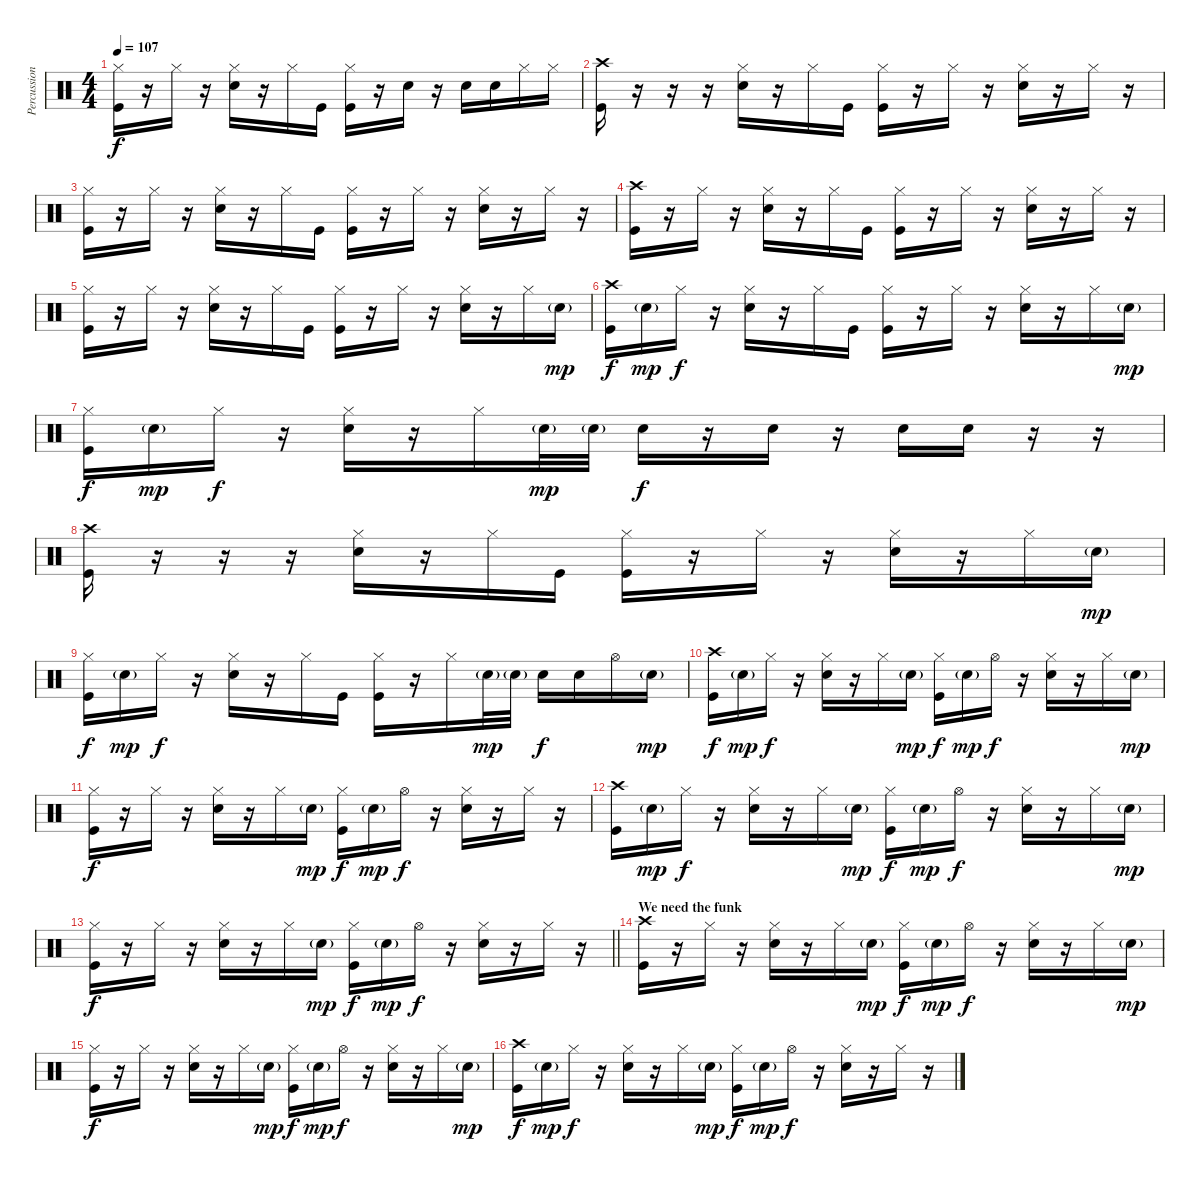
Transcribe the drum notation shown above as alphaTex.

\track ("Percussion" "Percussion") {instrument percussion}
\staff {score}
\articulation defaults
\ts (4 4)
\tempo 107
\clef neutral
\ks c
("Hi-Hat (closed)" "Kick (hit)").16{dy f} r.16 "Hi-Hat (closed)".16 r.16 ("Hi-Hat (closed)" "Snare (hit) 2").16 r.16 "Hi-Hat (closed)".16 "Kick (hit)".16 ("Hi-Hat (closed)" "Kick (hit)").16 r.16 "Snare (hit) 2".16 r.16 "Snare (hit) 2".16 "Snare (hit) 2".16 "Hi-Hat (closed)".16 "Hi-Hat (closed)".16 |
("Crash high (hit)" "Kick (hit)").16 r.16 r.16 r.16 ("Hi-Hat (closed)" "Snare (hit) 2").16 r.16 "Hi-Hat (closed)".16 "Kick (hit)".16 ("Hi-Hat (closed)" "Kick (hit)").16 r.16 "Hi-Hat (closed)".16 r.16 ("Hi-Hat (closed)" "Snare (hit) 2").16 r.16 "Hi-Hat (closed)".16 r.16 |
("Hi-Hat (closed)" "Kick (hit)").16 r.16 "Hi-Hat (closed)".16 r.16 ("Hi-Hat (closed)" "Snare (hit) 2").16 r.16 "Hi-Hat (closed)".16 "Kick (hit)".16 ("Hi-Hat (closed)" "Kick (hit)").16 r.16 "Hi-Hat (closed)".16 r.16 ("Hi-Hat (closed)" "Snare (hit) 2").16 r.16 "Hi-Hat (closed)".16 r.16 |
("Crash high (hit)" "Kick (hit)").16 r.16 "Hi-Hat (closed)".16 r.16 ("Hi-Hat (closed)" "Snare (hit) 2").16 r.16 "Hi-Hat (closed)".16 "Kick (hit)".16 ("Hi-Hat (closed)" "Kick (hit)").16 r.16 "Hi-Hat (closed)".16 r.16 ("Hi-Hat (closed)" "Snare (hit) 2").16 r.16 "Hi-Hat (closed)".16 r.16 |
("Hi-Hat (closed)" "Kick (hit)").16 r.16 "Hi-Hat (closed)".16 r.16 ("Hi-Hat (closed)" "Snare (hit) 2").16 r.16 "Hi-Hat (closed)".16 "Kick (hit)".16 ("Hi-Hat (closed)" "Kick (hit)").16 r.16 "Hi-Hat (closed)".16 r.16 ("Hi-Hat (closed)" "Snare (hit) 2").16 r.16 "Hi-Hat (closed)".16 "Snare (hit) 2"{g}.16{dy mp} |
("Crash high (hit)" "Kick (hit)").16{dy f} "Snare (hit) 2"{g}.16{dy mp} "Hi-Hat (closed)".16{dy f} r.16 ("Hi-Hat (closed)" "Snare (hit) 2").16 r.16 "Hi-Hat (closed)".16 "Kick (hit)".16 ("Hi-Hat (closed)" "Kick (hit)").16 r.16 "Hi-Hat (closed)".16 r.16 ("Hi-Hat (closed)" "Snare (hit) 2").16 r.16 "Hi-Hat (closed)".16 "Snare (hit) 2"{g}.16{dy mp} |
("Hi-Hat (closed)" "Kick (hit)").16{dy f} "Snare (hit) 2"{g}.16{dy mp} "Hi-Hat (closed)".16{dy f} r.16 ("Hi-Hat (closed)" "Snare (hit) 2").16 r.16 "Hi-Hat (closed)".16 "Snare (hit) 2"{g}.32{dy mp} "Snare (hit) 2"{g}.32 "Snare (hit) 2".16{dy f} r.16 "Snare (hit) 2".16 r.16 "Snare (hit) 2".16 "Snare (hit) 2".16 r.16 r.16 |
("Crash high (hit)" "Kick (hit)").16 r.16 r.16 r.16 ("Hi-Hat (closed)" "Snare (hit) 2").16 r.16 "Hi-Hat (closed)".16 "Kick (hit)".16 ("Hi-Hat (closed)" "Kick (hit)").16 r.16 "Hi-Hat (closed)".16 r.16 ("Hi-Hat (closed)" "Snare (hit) 2").16 r.16 "Hi-Hat (closed)".16 "Snare (hit) 2"{g}.16{dy mp} |
("Hi-Hat (closed)" "Kick (hit)").16{dy f} "Snare (hit) 2"{g}.16{dy mp} "Hi-Hat (closed)".16{dy f} r.16 ("Hi-Hat (closed)" "Snare (hit) 2").16 r.16 "Hi-Hat (closed)".16 "Kick (hit)".16 ("Hi-Hat (closed)" "Kick (hit)").16 r.16 "Hi-Hat (closed)".16 "Snare (hit) 2"{g}.32{dy mp} "Snare (hit) 2"{g}.32 "Snare (hit) 2".16{dy f} "Snare (hit) 2".16 "Hi-Hat (open)".16 "Snare (hit) 2"{g}.16{dy mp} |
("Crash high (hit)" "Kick (hit)").16{dy f} "Snare (hit) 2"{g}.16{dy mp} "Hi-Hat (closed)".16{dy f} r.16 ("Hi-Hat (closed)" "Snare (hit) 2").16 r.16 "Hi-Hat (closed)".16 "Snare (hit) 2"{g}.16{dy mp} ("Hi-Hat (closed)" "Kick (hit)").16{dy f} "Snare (hit) 2"{g}.16{dy mp} "Hi-Hat (open)".16{dy f} r.16 ("Hi-Hat (closed)" "Snare (hit) 2").16 r.16 "Hi-Hat (closed)".16 "Snare (hit) 2"{g}.16{dy mp} |
("Hi-Hat (closed)" "Kick (hit)").16{dy f} r.16 "Hi-Hat (closed)".16 r.16 ("Hi-Hat (closed)" "Snare (hit) 2").16 r.16 "Hi-Hat (closed)".16 "Snare (hit) 2"{g}.16{dy mp} ("Hi-Hat (closed)" "Kick (hit)").16{dy f} "Snare (hit) 2"{g}.16{dy mp} "Hi-Hat (open)".16{dy f} r.16 ("Hi-Hat (closed)" "Snare (hit) 2").16 r.16 "Hi-Hat (closed)".16 r.16 |
("Crash high (hit)" "Kick (hit)").16 "Snare (hit) 2"{g}.16{dy mp} "Hi-Hat (closed)".16{dy f} r.16 ("Hi-Hat (closed)" "Snare (hit) 2").16 r.16 "Hi-Hat (closed)".16 "Snare (hit) 2"{g}.16{dy mp} ("Hi-Hat (closed)" "Kick (hit)").16{dy f} "Snare (hit) 2"{g}.16{dy mp} "Hi-Hat (open)".16{dy f} r.16 ("Hi-Hat (closed)" "Snare (hit) 2").16 r.16 "Hi-Hat (closed)".16 "Snare (hit) 2"{g}.16{dy mp} |
\barLineRight lightlight
("Hi-Hat (closed)" "Kick (hit)").16{dy f} r.16 "Hi-Hat (closed)".16 r.16 ("Hi-Hat (closed)" "Snare (hit) 2").16 r.16 "Hi-Hat (closed)".16 "Snare (hit) 2"{g}.16{dy mp} ("Hi-Hat (closed)" "Kick (hit)").16{dy f} "Snare (hit) 2"{g}.16{dy mp} "Hi-Hat (open)".16{dy f} r.16 ("Hi-Hat (closed)" "Snare (hit) 2").16 r.16 "Hi-Hat (closed)".16 r.16 |
\section ("" "We need the funk")
("Crash high (hit)" "Kick (hit)").16 r.16 "Hi-Hat (closed)".16 r.16 ("Hi-Hat (closed)" "Snare (hit) 2").16 r.16 "Hi-Hat (closed)".16 "Snare (hit) 2"{g}.16{dy mp} ("Hi-Hat (closed)" "Kick (hit)").16{dy f} "Snare (hit) 2"{g}.16{dy mp} "Hi-Hat (open)".16{dy f} r.16 ("Hi-Hat (closed)" "Snare (hit) 2").16 r.16 "Hi-Hat (closed)".16 "Snare (hit) 2"{g}.16{dy mp} |
("Hi-Hat (closed)" "Kick (hit)").16{dy f} r.16 "Hi-Hat (closed)".16 r.16 ("Hi-Hat (closed)" "Snare (hit) 2").16 r.16 "Hi-Hat (closed)".16 "Snare (hit) 2"{g}.16{dy mp} ("Hi-Hat (closed)" "Kick (hit)").16{dy f} "Snare (hit) 2"{g}.16{dy mp} "Hi-Hat (open)".16{dy f} r.16 ("Hi-Hat (closed)" "Snare (hit) 2").16 r.16 "Hi-Hat (closed)".16 "Snare (hit) 2"{g}.16{dy mp} |
("Crash high (hit)" "Kick (hit)").16{dy f} "Snare (hit) 2"{g}.16{dy mp} "Hi-Hat (closed)".16{dy f} r.16 ("Hi-Hat (closed)" "Snare (hit) 2").16 r.16 "Hi-Hat (closed)".16 "Snare (hit) 2"{g}.16{dy mp} ("Hi-Hat (closed)" "Kick (hit)").16{dy f} "Snare (hit) 2"{g}.16{dy mp} "Hi-Hat (open)".16{dy f} r.16 ("Hi-Hat (closed)" "Snare (hit) 2").16 r.16 "Hi-Hat (closed)".16 r.16
